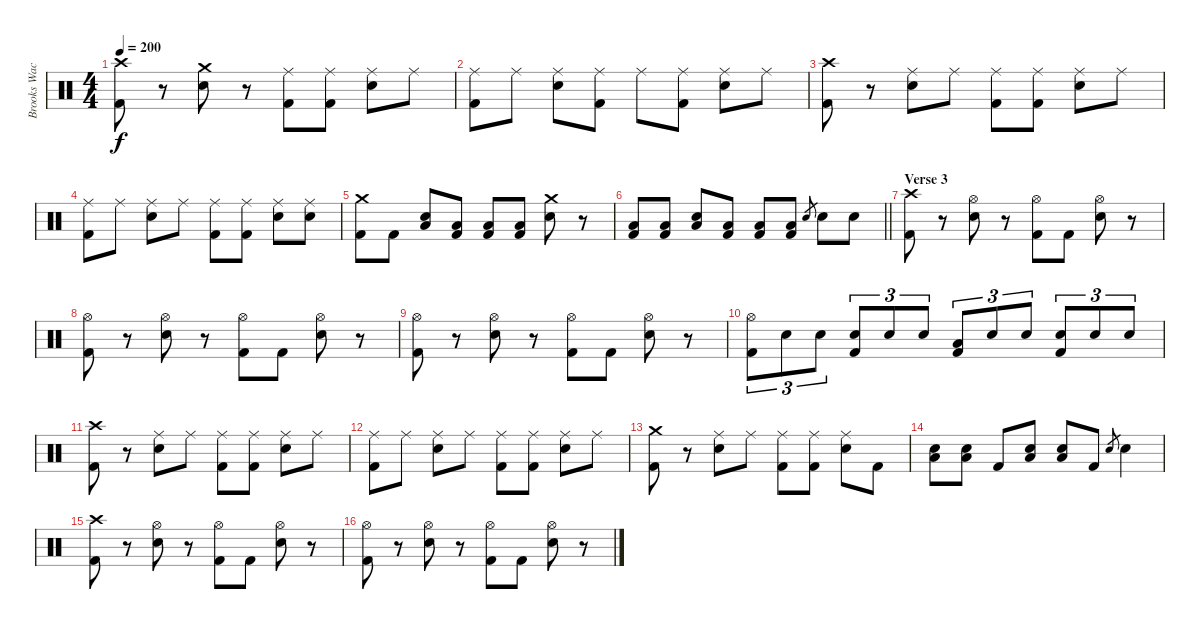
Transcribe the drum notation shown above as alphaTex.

\track ("Brooks Wackerman" "Brooks Wac") {instrument percussion}
\staff {score}
\articulation defaults
\ts (4 4)
\tempo 200
\clef neutral
\ks c
("Crash high (hit)" "Kick (hit) 2").8{dy f} r.8 ("Crash medium (hit)" "Electric Snare (hit)").8 r.8 ("Ride (middle)" "Kick (hit) 2").8 ("Ride (middle)" "Kick (hit) 2").8 ("Ride (middle)" "Electric Snare (hit)").8 "Ride (middle)".8 |
("Ride (middle)" "Kick (hit) 2").8 "Ride (middle)".8 ("Ride (middle)" "Electric Snare (hit)").8 ("Ride (middle)" "Kick (hit) 2").8 "Ride (middle)".8 ("Ride (middle)" "Kick (hit) 2").8 ("Ride (middle)" "Electric Snare (hit)").8 "Ride (middle)".8 |
("Crash high (hit)" "Kick (hit) 2").8 r.8 ("Ride (middle)" "Electric Snare (hit)").8 "Ride (middle)".8 ("Ride (middle)" "Kick (hit) 2").8 ("Ride (middle)" "Kick (hit) 2").8 ("Ride (middle)" "Electric Snare (hit)").8 "Ride (middle)".8 |
("Ride (middle)" "Kick (hit) 2").8 "Ride (middle)".8 ("Ride (middle)" "Electric Snare (hit)").8 "Ride (middle)".8 ("Ride (middle)" "Kick (hit) 2").8 ("Ride (middle)" "Kick (hit) 2").8 ("Ride (middle)" "Electric Snare (hit)").8 ("Ride (middle)" "Electric Snare (hit)").8 |
("Crash medium (hit)" "Kick (hit) 2").8 "Kick (hit) 2".8 ("Low Floor Tom (hit)" "Electric Snare (hit)").8 ("Low Floor Tom (hit)" "Kick (hit) 2").8 ("Low Floor Tom (hit)" "Kick (hit) 2").8 ("Low Floor Tom (hit)" "Kick (hit) 2").8 ("Crash medium (hit)" "Electric Snare (hit)").8 r.8 |
\barLineRight lightlight
("Low Floor Tom (hit)" "Kick (hit) 2").8 ("Low Floor Tom (hit)" "Kick (hit) 2").8 ("Low Floor Tom (hit)" "Electric Snare (hit)").8 ("Low Floor Tom (hit)" "Kick (hit) 2").8 ("Low Floor Tom (hit)" "Kick (hit) 2").8 ("Low Floor Tom (hit)" "Kick (hit) 2").8 "Electric Snare (hit)".8{gr} "Electric Snare (hit)".8 "Electric Snare (hit)".8 |
\section ("" "Verse 3")
("Crash high (hit)" "Kick (hit) 2").8 r.8 ("Hi-Hat (open)" "Electric Snare (hit)").8 r.8 ("Hi-Hat (open)" "Kick (hit) 2").8 "Kick (hit) 2".8 ("Hi-Hat (open)" "Electric Snare (hit)").8 r.8 |
("Hi-Hat (open)" "Kick (hit) 2").8 r.8 ("Hi-Hat (open)" "Electric Snare (hit)").8 r.8 ("Hi-Hat (open)" "Kick (hit) 2").8 "Kick (hit) 2".8 ("Hi-Hat (open)" "Electric Snare (hit)").8 r.8 |
("Hi-Hat (open)" "Kick (hit) 2").8 r.8 ("Hi-Hat (open)" "Electric Snare (hit)").8 r.8 ("Hi-Hat (open)" "Kick (hit) 2").8 "Kick (hit) 2".8 ("Hi-Hat (open)" "Electric Snare (hit)").8 r.8 |
("Hi-Hat (open)" "Kick (hit) 2").8{tu (3 2)} "Electric Snare (hit)".8{tu (3 2)} "Electric Snare (hit)".8{tu (3 2)} ("Electric Snare (hit)" "Kick (hit) 2").8{tu (3 2)} "Electric Snare (hit)".8{tu (3 2)} "Electric Snare (hit)".8{tu (3 2)} ("Low Tom (hit)" "Kick (hit) 2").8{tu (3 2)} "Electric Snare (hit)".8{tu (3 2)} "Electric Snare (hit)".8{tu (3 2)} ("Electric Snare (hit)" "Kick (hit) 2").8{tu (3 2)} "Electric Snare (hit)".8{tu (3 2)} "Electric Snare (hit)".8{tu (3 2)} |
("Crash high (hit)" "Kick (hit) 2").8 r.8 ("Ride (middle)" "Electric Snare (hit)").8 "Ride (middle)".8 ("Ride (middle)" "Kick (hit) 2").8 ("Ride (middle)" "Kick (hit) 2").8 ("Ride (middle)" "Electric Snare (hit)").8 "Ride (middle)".8 |
("Ride (middle)" "Kick (hit) 2").8 "Ride (middle)".8 ("Ride (middle)" "Electric Snare (hit)").8 "Ride (middle)".8 ("Ride (middle)" "Kick (hit) 2").8 ("Ride (middle)" "Kick (hit) 2").8 ("Ride (middle)" "Electric Snare (hit)").8 "Ride (middle)".8 |
("Crash medium (hit)" "Kick (hit) 2").8 r.8 ("Ride (middle)" "Electric Snare (hit)").8 "Ride (middle)".8 ("Ride (middle)" "Kick (hit) 2").8 ("Ride (middle)" "Kick (hit) 2").8 ("Ride (middle)" "Electric Snare (hit)").8 "Kick (hit) 2".8 |
("Low Floor Tom (hit)" "Electric Snare (hit)").8 ("Low Floor Tom (hit)" "Electric Snare (hit)").8 "Kick (hit) 2".8 ("Low Floor Tom (hit)" "Electric Snare (hit)").8 ("Low Floor Tom (hit)" "Electric Snare (hit)").8 "Kick (hit) 2".8 "Electric Snare (hit)".8{gr} "Electric Snare (hit)".4 |
("Crash high (hit)" "Kick (hit) 2").8 r.8 ("Hi-Hat (open)" "Electric Snare (hit)").8 r.8 ("Hi-Hat (open)" "Kick (hit) 2").8 "Kick (hit) 2".8 ("Hi-Hat (open)" "Electric Snare (hit)").8 r.8 |
("Hi-Hat (open)" "Kick (hit) 2").8 r.8 ("Hi-Hat (open)" "Electric Snare (hit)").8 r.8 ("Hi-Hat (open)" "Kick (hit) 2").8 "Kick (hit) 2".8 ("Hi-Hat (open)" "Electric Snare (hit)").8 r.8
